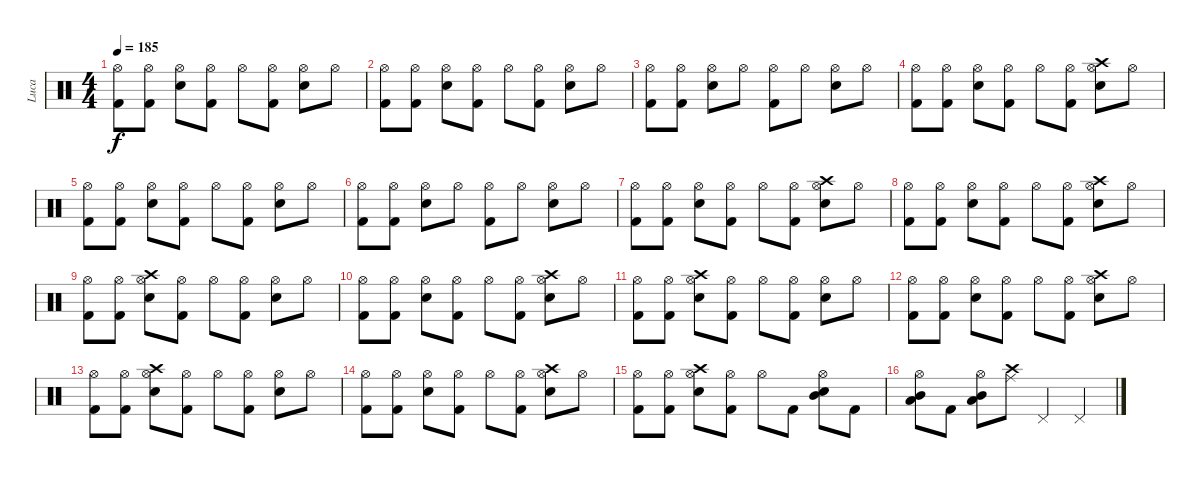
\track ("Luca" "Luca") {instrument percussion}
\staff {score}
\articulation defaults
\ts (4 4)
\tempo 185
\clef neutral
\ks c
("Hi-Hat (open)" "Kick (hit) 2").8{dy f} ("Hi-Hat (open)" "Kick (hit) 2").8 ("Hi-Hat (open)" "Snare (hit) 2").8 ("Hi-Hat (open)" "Kick (hit) 2").8 "Hi-Hat (open)".8 ("Hi-Hat (open)" "Kick (hit) 2").8 ("Hi-Hat (open)" "Snare (hit) 2").8 "Hi-Hat (open)".8 |
("Hi-Hat (open)" "Kick (hit) 2").8 ("Hi-Hat (open)" "Kick (hit) 2").8 ("Hi-Hat (open)" "Snare (hit) 2").8 ("Hi-Hat (open)" "Kick (hit) 2").8 "Hi-Hat (open)".8 ("Hi-Hat (open)" "Kick (hit) 2").8 ("Hi-Hat (open)" "Snare (hit) 2").8 "Hi-Hat (open)".8 |
("Hi-Hat (open)" "Kick (hit) 2").8 ("Hi-Hat (open)" "Kick (hit) 2").8 ("Hi-Hat (open)" "Snare (hit) 2").8 "Hi-Hat (open)".8 ("Hi-Hat (open)" "Kick (hit) 2").8 "Hi-Hat (open)".8 ("Hi-Hat (open)" "Snare (hit) 2").8 "Hi-Hat (open)".8 |
("Hi-Hat (open)" "Kick (hit) 2").8 ("Hi-Hat (open)" "Kick (hit) 2").8 ("Hi-Hat (open)" "Snare (hit) 2").8 ("Hi-Hat (open)" "Kick (hit) 2").8 "Hi-Hat (open)".8 ("Hi-Hat (open)" "Kick (hit) 2").8 ("Hi-Hat (open)" "Crash high (hit)" "Snare (hit) 2").8 "Hi-Hat (open)".8 |
("Hi-Hat (open)" "Kick (hit) 2").8 ("Hi-Hat (open)" "Kick (hit) 2").8 ("Hi-Hat (open)" "Snare (hit) 2").8 ("Hi-Hat (open)" "Kick (hit) 2").8 "Hi-Hat (open)".8 ("Hi-Hat (open)" "Kick (hit) 2").8 ("Hi-Hat (open)" "Snare (hit) 2").8 "Hi-Hat (open)".8 |
("Hi-Hat (open)" "Kick (hit) 2").8 ("Hi-Hat (open)" "Kick (hit) 2").8 ("Hi-Hat (open)" "Snare (hit) 2").8 "Hi-Hat (open)".8 ("Hi-Hat (open)" "Kick (hit) 2").8 "Hi-Hat (open)".8 ("Hi-Hat (open)" "Snare (hit) 2").8 "Hi-Hat (open)".8 |
("Hi-Hat (open)" "Kick (hit) 2").8 ("Hi-Hat (open)" "Kick (hit) 2").8 ("Hi-Hat (open)" "Snare (hit) 2").8 ("Hi-Hat (open)" "Kick (hit) 2").8 "Hi-Hat (open)".8 ("Hi-Hat (open)" "Kick (hit) 2").8 ("Hi-Hat (open)" "Crash high (hit)" "Snare (hit) 2").8 "Hi-Hat (open)".8 |
("Hi-Hat (open)" "Kick (hit) 2").8 ("Hi-Hat (open)" "Kick (hit) 2").8 ("Hi-Hat (open)" "Snare (hit) 2").8 ("Hi-Hat (open)" "Kick (hit) 2").8 "Hi-Hat (open)".8 ("Hi-Hat (open)" "Kick (hit) 2").8 ("Hi-Hat (open)" "Crash high (hit)" "Snare (hit) 2").8 "Hi-Hat (open)".8 |
("Hi-Hat (open)" "Kick (hit) 2").8 ("Hi-Hat (open)" "Kick (hit) 2").8 ("Hi-Hat (open)" "Crash high (hit)" "Snare (hit) 2").8 ("Hi-Hat (open)" "Kick (hit) 2").8 "Hi-Hat (open)".8 ("Hi-Hat (open)" "Kick (hit) 2").8 ("Hi-Hat (open)" "Snare (hit) 2").8 "Hi-Hat (open)".8 |
("Hi-Hat (open)" "Kick (hit) 2").8 ("Hi-Hat (open)" "Kick (hit) 2").8 ("Hi-Hat (open)" "Snare (hit) 2").8 ("Hi-Hat (open)" "Kick (hit) 2").8 "Hi-Hat (open)".8 ("Hi-Hat (open)" "Kick (hit) 2").8 ("Hi-Hat (open)" "Crash high (hit)" "Snare (hit) 2").8 "Hi-Hat (open)".8 |
("Hi-Hat (open)" "Kick (hit) 2").8 ("Hi-Hat (open)" "Kick (hit) 2").8 ("Hi-Hat (open)" "Crash high (hit)" "Snare (hit) 2").8 ("Hi-Hat (open)" "Kick (hit) 2").8 "Hi-Hat (open)".8 ("Hi-Hat (open)" "Kick (hit) 2").8 ("Hi-Hat (open)" "Snare (hit) 2").8 "Hi-Hat (open)".8 |
("Hi-Hat (open)" "Kick (hit) 2").8 ("Hi-Hat (open)" "Kick (hit) 2").8 ("Hi-Hat (open)" "Snare (hit) 2").8 ("Hi-Hat (open)" "Kick (hit) 2").8 "Hi-Hat (open)".8 ("Hi-Hat (open)" "Kick (hit) 2").8 ("Hi-Hat (open)" "Crash high (hit)" "Snare (hit) 2").8 "Hi-Hat (open)".8 |
("Hi-Hat (open)" "Kick (hit) 2").8 ("Hi-Hat (open)" "Kick (hit) 2").8 ("Hi-Hat (open)" "Crash high (hit)" "Snare (hit) 2").8 ("Hi-Hat (open)" "Kick (hit) 2").8 "Hi-Hat (open)".8 ("Hi-Hat (open)" "Kick (hit) 2").8 ("Hi-Hat (open)" "Snare (hit) 2").8 "Hi-Hat (open)".8 |
("Hi-Hat (open)" "Kick (hit) 2").8 ("Hi-Hat (open)" "Kick (hit) 2").8 ("Hi-Hat (open)" "Snare (hit) 2").8 ("Hi-Hat (open)" "Kick (hit) 2").8 "Hi-Hat (open)".8 ("Hi-Hat (open)" "Kick (hit) 2").8 ("Hi-Hat (open)" "Crash high (hit)" "Snare (hit) 2").8 "Hi-Hat (open)".8 |
("Hi-Hat (open)" "Kick (hit) 2").8 ("Hi-Hat (open)" "Kick (hit) 2").8 ("Hi-Hat (open)" "Crash high (hit)" "Snare (hit) 2").8 ("Hi-Hat (open)" "Kick (hit) 2").8 "Hi-Hat (open)".8 "Kick (hit) 2".8 ("Hi-Hat (open)" "Mid Tom (hit)" "Snare (hit) 2").8 "Kick (hit) 2".8 |
("Hi-Hat (open)" "Mid Tom (hit)" "Low Tom (hit)").8 "Kick (hit) 2".8 ("Hi-Hat (open)" "Low Floor Tom (hit)" "Mid Tom (hit)").8 ("Crash high (hit)" "Ride (middle)").8 "Pedal Hi-Hat (hit)".4 "Pedal Hi-Hat (hit)".4
